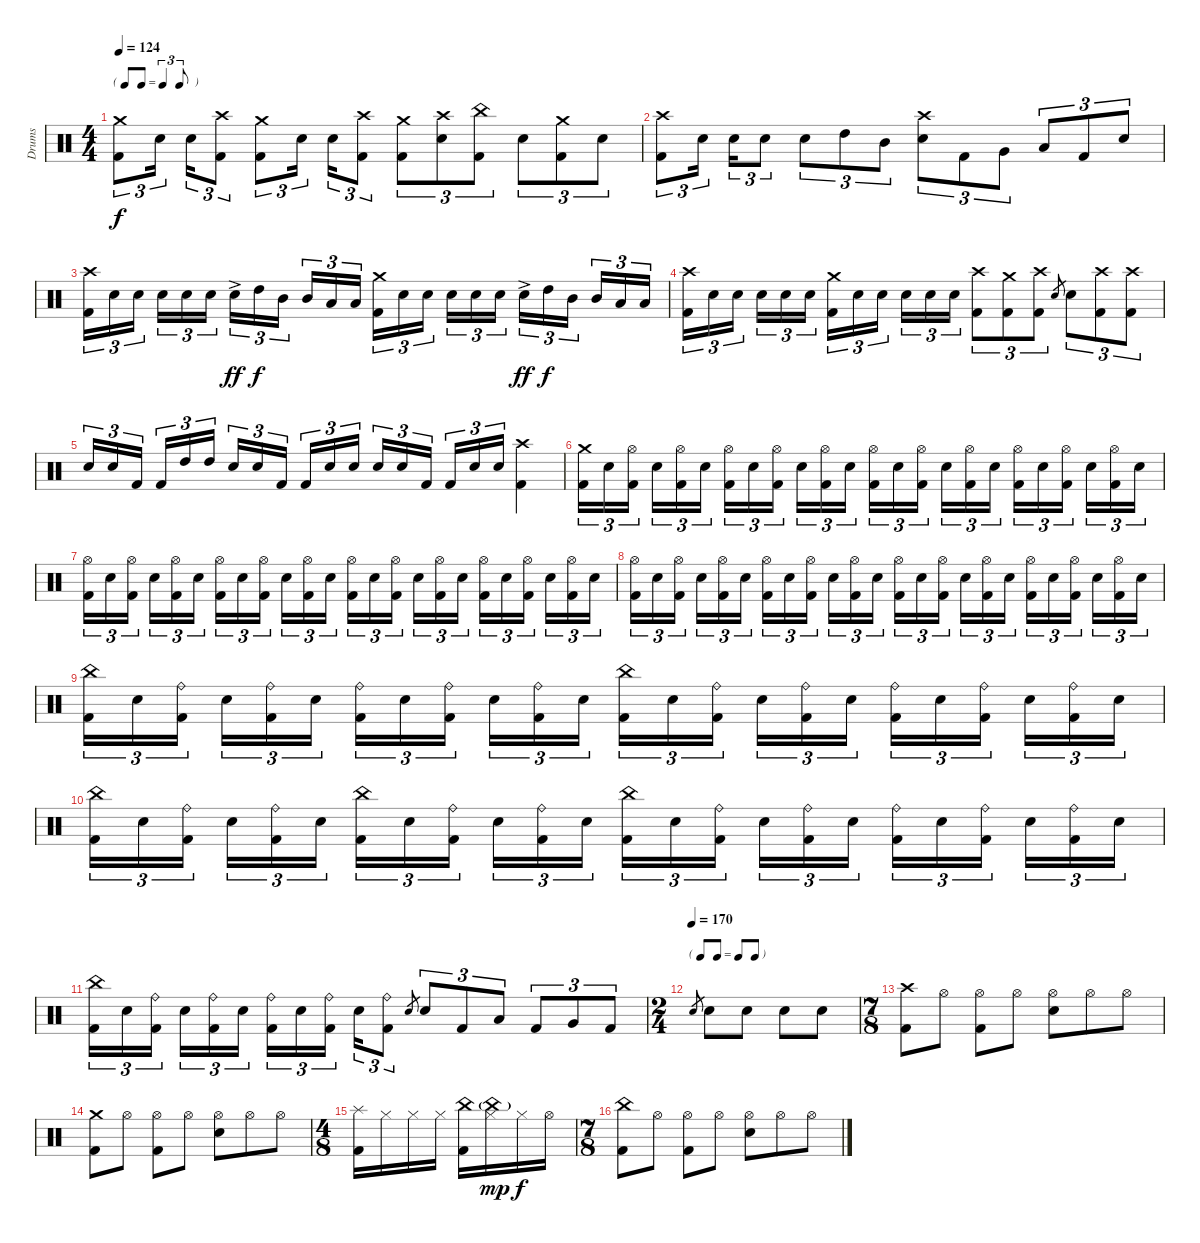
\track ("Drums" "Drums") {instrument percussion}
\staff {score}
\articulation defaults
\ts (4 4)
\tf triplet8th
\tempo 124
\clef neutral
\ks c
("Crash medium (hit)" "Kick (hit) 2").8{tu (3 2) dy f} "Electric Snare (hit)".16{tu (3 2)} "Electric Snare (hit)".16{tu (3 2)} ("Crash high (hit)" "Kick (hit) 2").8{tu (3 2)} ("Crash medium (hit)" "Kick (hit) 2").8{tu (3 2)} "Electric Snare (hit)".16{tu (3 2)} "Electric Snare (hit)".16{tu (3 2)} ("Crash high (hit)" "Kick (hit) 2").8{tu (3 2)} ("Crash medium (hit)" "Kick (hit) 2").8{tu (3 2)} ("Crash high (hit)" "Electric Snare (hit)").8{tu (3 2)} ("China (hit)" "Kick (hit) 2").8{tu (3 2)} "Electric Snare (hit)".8{tu (3 2)} ("Crash medium (hit)" "Kick (hit) 2").8{tu (3 2)} "Electric Snare (hit)".8{tu (3 2)} |
("Crash high (hit)" "Kick (hit) 2").8{tu (3 2)} "Electric Snare (hit)".16{tu (3 2)} "Electric Snare (hit)".16{tu (3 2)} "Electric Snare (hit)".8{tu (3 2)} "Electric Snare (hit)".8{tu (3 2)} "High Tom (hit)".8{tu (3 2)} "Mid Tom (hit)".8{tu (3 2)} ("Crash high (hit)" "Electric Snare (hit)").8{tu (3 2)} "Kick (hit) 2".8{tu (3 2)} "Very Low Tom (hit)".8{tu (3 2)} "Low Floor Tom (hit)".8{tu (3 2)} "Kick (hit) 2".8{tu (3 2)} "Electric Snare (hit)".8{tu (3 2)} |
("Crash high (hit)" "Kick (hit) 2").16{tu (3 2)} "Electric Snare (hit)".16{tu (3 2)} "Electric Snare (hit)".16{tu (3 2) beam splitsecondary} "Electric Snare (hit)".16{tu (3 2)} "Electric Snare (hit)".16{tu (3 2)} "Electric Snare (hit)".16{tu (3 2)} "Electric Snare (hit)"{ac}.16{tu (3 2) dy ff} "High Tom (hit)".16{tu (3 2) dy f} "Mid Tom (hit)".16{tu (3 2) beam splitsecondary} "Mid Tom (hit)".16{tu (3 2)} "Low Tom (hit)".16{tu (3 2)} "Low Tom (hit)".16{tu (3 2)} ("Crash medium (hit)" "Kick (hit) 2").16{tu (3 2)} "Electric Snare (hit)".16{tu (3 2)} "Electric Snare (hit)".16{tu (3 2) beam splitsecondary} "Electric Snare (hit)".16{tu (3 2)} "Electric Snare (hit)".16{tu (3 2)} "Electric Snare (hit)".16{tu (3 2)} "Electric Snare (hit)"{ac}.16{tu (3 2) dy ff} "High Tom (hit)".16{tu (3 2) dy f} "Mid Tom (hit)".16{tu (3 2) beam splitsecondary} "Mid Tom (hit)".16{tu (3 2)} "Low Tom (hit)".16{tu (3 2)} "Low Tom (hit)".16{tu (3 2)} |
("Crash high (hit)" "Kick (hit) 2").16{tu (3 2)} "Electric Snare (hit)".16{tu (3 2)} "Electric Snare (hit)".16{tu (3 2) beam splitsecondary} "Electric Snare (hit)".16{tu (3 2)} "Electric Snare (hit)".16{tu (3 2)} "Electric Snare (hit)".16{tu (3 2)} ("Crash medium (hit)" "Kick (hit) 2").16{tu (3 2)} "Electric Snare (hit)".16{tu (3 2)} "Electric Snare (hit)".16{tu (3 2) beam splitsecondary} "Electric Snare (hit)".16{tu (3 2)} "Electric Snare (hit)".16{tu (3 2)} "Electric Snare (hit)".16{tu (3 2)} ("Crash high (hit)" "Kick (hit) 2").8{tu (3 2)} ("Crash medium (hit)" "Kick (hit) 2").8{tu (3 2)} ("Crash high (hit)" "Kick (hit) 2").8{tu (3 2)} "Electric Snare (hit)".8{gr} "Electric Snare (hit)".8{tu (3 2)} ("Crash high (hit)" "Kick (hit) 2").8{tu (3 2)} ("Crash high (hit)" "Kick (hit) 2").8{tu (3 2)} |
"Electric Snare (hit)".16{tu (3 2)} "Electric Snare (hit)".16{tu (3 2)} "Kick (hit) 2".16{tu (3 2) beam splitsecondary} "Kick (hit) 2".16{tu (3 2)} "High Tom (hit)".16{tu (3 2)} "High Tom (hit)".16{tu (3 2)} "Electric Snare (hit)".16{tu (3 2)} "Electric Snare (hit)".16{tu (3 2)} "Kick (hit) 2".16{tu (3 2) beam splitsecondary} "Kick (hit) 2".16{tu (3 2)} "Electric Snare (hit)".16{tu (3 2)} "Electric Snare (hit)".16{tu (3 2)} "Electric Snare (hit)".16{tu (3 2)} "Electric Snare (hit)".16{tu (3 2)} "Kick (hit) 2".16{tu (3 2) beam splitsecondary} "Kick (hit) 2".16{tu (3 2)} "Electric Snare (hit)".16{tu (3 2)} "Electric Snare (hit)".16{tu (3 2)} ("Crash high (hit)" "Kick (hit) 2").4 |
("Crash medium (hit)" "Kick (hit) 2").16{tu (3 2)} "Electric Snare (hit)".16{tu (3 2)} ("Hi-Hat (open)" "Kick (hit) 2").16{tu (3 2) beam splitsecondary} "Electric Snare (hit)".16{tu (3 2)} ("Hi-Hat (open)" "Kick (hit) 2").16{tu (3 2)} "Electric Snare (hit)".16{tu (3 2)} ("Hi-Hat (open)" "Kick (hit) 2").16{tu (3 2)} "Electric Snare (hit)".16{tu (3 2)} ("Hi-Hat (open)" "Kick (hit) 2").16{tu (3 2) beam splitsecondary} "Electric Snare (hit)".16{tu (3 2)} ("Hi-Hat (open)" "Kick (hit) 2").16{tu (3 2)} "Electric Snare (hit)".16{tu (3 2)} ("Hi-Hat (open)" "Kick (hit) 2").16{tu (3 2)} "Electric Snare (hit)".16{tu (3 2)} ("Hi-Hat (open)" "Kick (hit) 2").16{tu (3 2) beam splitsecondary} "Electric Snare (hit)".16{tu (3 2)} ("Hi-Hat (open)" "Kick (hit) 2").16{tu (3 2)} "Electric Snare (hit)".16{tu (3 2)} ("Hi-Hat (open)" "Kick (hit) 2").16{tu (3 2)} "Electric Snare (hit)".16{tu (3 2)} ("Hi-Hat (open)" "Kick (hit) 2").16{tu (3 2) beam splitsecondary} "Electric Snare (hit)".16{tu (3 2)} ("Hi-Hat (open)" "Kick (hit) 2").16{tu (3 2)} "Electric Snare (hit)".16{tu (3 2)} |
("Hi-Hat (open)" "Kick (hit) 2").16{tu (3 2)} "Electric Snare (hit)".16{tu (3 2)} ("Hi-Hat (open)" "Kick (hit) 2").16{tu (3 2) beam splitsecondary} "Electric Snare (hit)".16{tu (3 2)} ("Hi-Hat (open)" "Kick (hit) 2").16{tu (3 2)} "Electric Snare (hit)".16{tu (3 2)} ("Hi-Hat (open)" "Kick (hit) 2").16{tu (3 2)} "Electric Snare (hit)".16{tu (3 2)} ("Hi-Hat (open)" "Kick (hit) 2").16{tu (3 2) beam splitsecondary} "Electric Snare (hit)".16{tu (3 2)} ("Hi-Hat (open)" "Kick (hit) 2").16{tu (3 2)} "Electric Snare (hit)".16{tu (3 2)} ("Hi-Hat (open)" "Kick (hit) 2").16{tu (3 2)} "Electric Snare (hit)".16{tu (3 2)} ("Hi-Hat (open)" "Kick (hit) 2").16{tu (3 2) beam splitsecondary} "Electric Snare (hit)".16{tu (3 2)} ("Hi-Hat (open)" "Kick (hit) 2").16{tu (3 2)} "Electric Snare (hit)".16{tu (3 2)} ("Hi-Hat (open)" "Kick (hit) 2").16{tu (3 2)} "Electric Snare (hit)".16{tu (3 2)} ("Hi-Hat (open)" "Kick (hit) 2").16{tu (3 2) beam splitsecondary} "Electric Snare (hit)".16{tu (3 2)} ("Hi-Hat (open)" "Kick (hit) 2").16{tu (3 2)} "Electric Snare (hit)".16{tu (3 2)} |
("Hi-Hat (open)" "Kick (hit) 2").16{tu (3 2)} "Electric Snare (hit)".16{tu (3 2)} ("Hi-Hat (open)" "Kick (hit) 2").16{tu (3 2) beam splitsecondary} "Electric Snare (hit)".16{tu (3 2)} ("Hi-Hat (open)" "Kick (hit) 2").16{tu (3 2)} "Electric Snare (hit)".16{tu (3 2)} ("Hi-Hat (open)" "Kick (hit) 2").16{tu (3 2)} "Electric Snare (hit)".16{tu (3 2)} ("Hi-Hat (open)" "Kick (hit) 2").16{tu (3 2) beam splitsecondary} "Electric Snare (hit)".16{tu (3 2)} ("Hi-Hat (open)" "Kick (hit) 2").16{tu (3 2)} "Electric Snare (hit)".16{tu (3 2)} ("Hi-Hat (open)" "Kick (hit) 2").16{tu (3 2)} "Electric Snare (hit)".16{tu (3 2)} ("Hi-Hat (open)" "Kick (hit) 2").16{tu (3 2) beam splitsecondary} "Electric Snare (hit)".16{tu (3 2)} ("Hi-Hat (open)" "Kick (hit) 2").16{tu (3 2)} "Electric Snare (hit)".16{tu (3 2)} ("Hi-Hat (open)" "Kick (hit) 2").16{tu (3 2)} "Electric Snare (hit)".16{tu (3 2)} ("Hi-Hat (open)" "Kick (hit) 2").16{tu (3 2) beam splitsecondary} "Electric Snare (hit)".16{tu (3 2)} ("Hi-Hat (open)" "Kick (hit) 2").16{tu (3 2)} "Electric Snare (hit)".16{tu (3 2)} |
("China (hit)" "Kick (hit) 2").16{tu (3 2)} "Electric Snare (hit)".16{tu (3 2)} ("Ride (bell)" "Kick (hit) 2").16{tu (3 2) beam splitsecondary} "Electric Snare (hit)".16{tu (3 2)} ("Ride (bell)" "Kick (hit) 2").16{tu (3 2)} "Electric Snare (hit)".16{tu (3 2)} ("Ride (bell)" "Kick (hit) 2").16{tu (3 2)} "Electric Snare (hit)".16{tu (3 2)} ("Ride (bell)" "Kick (hit) 2").16{tu (3 2) beam splitsecondary} "Electric Snare (hit)".16{tu (3 2)} ("Ride (bell)" "Kick (hit) 2").16{tu (3 2)} "Electric Snare (hit)".16{tu (3 2)} ("China (hit)" "Kick (hit) 2").16{tu (3 2)} "Electric Snare (hit)".16{tu (3 2)} ("Ride (bell)" "Kick (hit) 2").16{tu (3 2) beam splitsecondary} "Electric Snare (hit)".16{tu (3 2)} ("Ride (bell)" "Kick (hit) 2").16{tu (3 2)} "Electric Snare (hit)".16{tu (3 2)} ("Ride (bell)" "Kick (hit) 2").16{tu (3 2)} "Electric Snare (hit)".16{tu (3 2)} ("Ride (bell)" "Kick (hit) 2").16{tu (3 2) beam splitsecondary} "Electric Snare (hit)".16{tu (3 2)} ("Ride (bell)" "Kick (hit) 2").16{tu (3 2)} "Electric Snare (hit)".16{tu (3 2)} |
("China (hit)" "Kick (hit) 2").16{tu (3 2)} "Electric Snare (hit)".16{tu (3 2)} ("Ride (bell)" "Kick (hit) 2").16{tu (3 2) beam splitsecondary} "Electric Snare (hit)".16{tu (3 2)} ("Ride (bell)" "Kick (hit) 2").16{tu (3 2)} "Electric Snare (hit)".16{tu (3 2)} ("China (hit)" "Kick (hit) 2").16{tu (3 2)} "Electric Snare (hit)".16{tu (3 2)} ("Ride (bell)" "Kick (hit) 2").16{tu (3 2) beam splitsecondary} "Electric Snare (hit)".16{tu (3 2)} ("Ride (bell)" "Kick (hit) 2").16{tu (3 2)} "Electric Snare (hit)".16{tu (3 2)} ("China (hit)" "Kick (hit) 2").16{tu (3 2)} "Electric Snare (hit)".16{tu (3 2)} ("Ride (bell)" "Kick (hit) 2").16{tu (3 2) beam splitsecondary} "Electric Snare (hit)".16{tu (3 2)} ("Ride (bell)" "Kick (hit) 2").16{tu (3 2)} "Electric Snare (hit)".16{tu (3 2)} ("Ride (bell)" "Kick (hit) 2").16{tu (3 2)} "Electric Snare (hit)".16{tu (3 2)} ("Ride (bell)" "Kick (hit) 2").16{tu (3 2) beam splitsecondary} "Electric Snare (hit)".16{tu (3 2)} ("Ride (bell)" "Kick (hit) 2").16{tu (3 2)} "Electric Snare (hit)".16{tu (3 2)} |
("China (hit)" "Kick (hit) 2").16{tu (3 2)} "Electric Snare (hit)".16{tu (3 2)} ("Ride (bell)" "Kick (hit) 2").16{tu (3 2) beam splitsecondary} "Electric Snare (hit)".16{tu (3 2)} ("Ride (bell)" "Kick (hit) 2").16{tu (3 2)} "Electric Snare (hit)".16{tu (3 2)} ("Ride (bell)" "Kick (hit) 2").16{tu (3 2)} "Electric Snare (hit)".16{tu (3 2)} ("Ride (bell)" "Kick (hit) 2").16{tu (3 2) beam splitsecondary} "Electric Snare (hit)".16{tu (3 2)} ("Ride (bell)" "Kick (hit) 2").8{tu (3 2)} "Electric Snare (hit)".8{gr} "Electric Snare (hit)".8{tu (3 2)} "Kick (hit) 2".8{tu (3 2)} "Low Tom (hit)".8{tu (3 2)} "Kick (hit) 2".8{tu (3 2)} "Very Low Tom (hit)".8{tu (3 2)} "Kick (hit) 2".8{tu (3 2)} |
\ts (2 4)
\tf none
\tempo (170)
"Electric Snare (hit)".8{gr} "Electric Snare (hit)".8 "Electric Snare (hit)".8 "Electric Snare (hit)".8 "Electric Snare (hit)".8 |
\ts (7 8)
("Crash high (hit)" "Kick (hit) 2").8{beam merge} "Hi-Hat (open)".8{beam split} ("Hi-Hat (open)" "Kick (hit) 2").8{beam merge} "Hi-Hat (open)".8{beam split} ("Hi-Hat (open)" "Electric Snare (hit)").8{beam merge} "Hi-Hat (open)".8{beam merge} "Hi-Hat (open)".8 |
("Crash medium (hit)" "Kick (hit) 2").8{beam merge} "Hi-Hat (open)".8{beam split} ("Hi-Hat (open)" "Kick (hit) 2").8{beam merge} "Hi-Hat (open)".8{beam split} ("Hi-Hat (open)" "Electric Snare (hit)").8{beam merge} "Hi-Hat (open)".8{beam merge} "Hi-Hat (open)".8 |
\ts (4 8)
("Splash (hit)" "Kick (hit) 2").16 "Hi-Hat (closed)".16{beam merge} "Hi-Hat (closed)".16 "Hi-Hat (closed)".16{beam split} ("China (hit)" "Kick (hit) 2").16 ("Hi-Hat (closed)" "China (hit)"{g}).16{dy mp beam merge} "Hi-Hat (closed)".16{dy f} "Hi-Hat (open)".16 |
\ts (7 8)
("China (hit)" "Kick (hit) 2").8{beam merge} "Hi-Hat (open)".8{beam split} ("Hi-Hat (open)" "Kick (hit) 2").8{beam merge} "Hi-Hat (open)".8{beam split} ("Hi-Hat (open)" "Electric Snare (hit)").8{beam merge} "Hi-Hat (open)".8{beam merge} "Hi-Hat (open)".8
